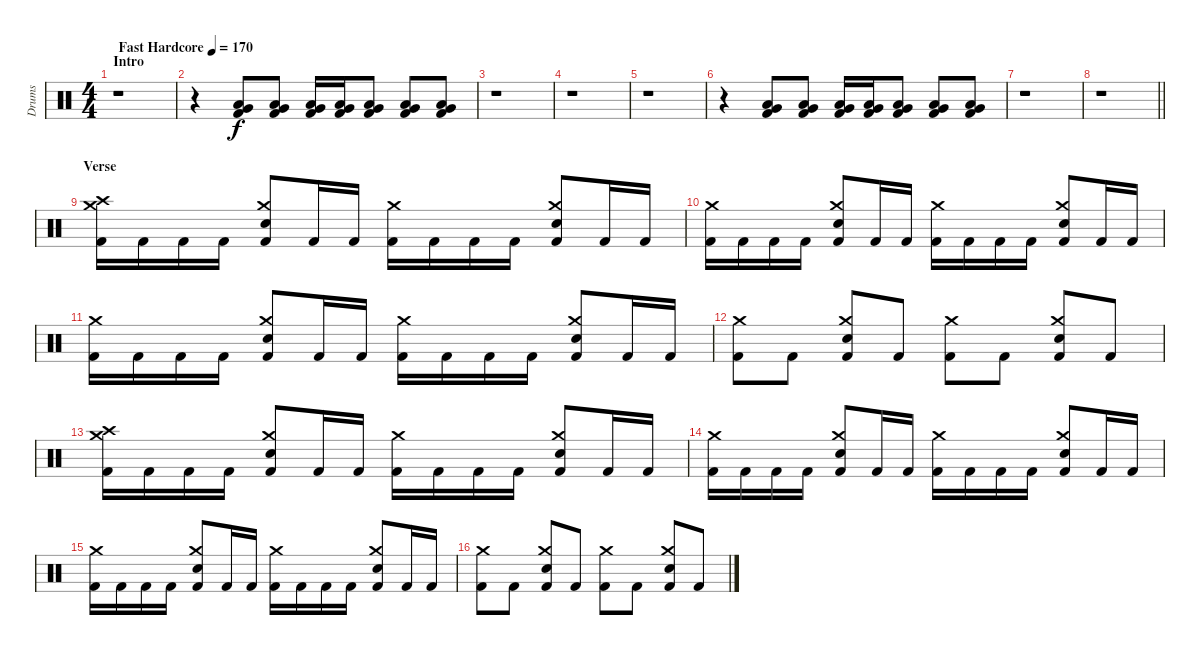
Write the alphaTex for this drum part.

\track ("Drums" "Drums") {instrument percussion}
\staff {score}
\articulation defaults
\ts (4 4)
\section ("" "Intro")
\tempo (170 "Fast Hardcore")
\clef neutral
\ks c
r.1{dy f} |
r.4 ("Very Low Tom (hit)" "Low Floor Tom (hit)" "Kick (hit) 2").8 ("Very Low Tom (hit)" "Low Floor Tom (hit)" "Kick (hit) 2").8 ("Very Low Tom (hit)" "Low Floor Tom (hit)" "Kick (hit) 2").16 ("Very Low Tom (hit)" "Low Floor Tom (hit)" "Kick (hit) 2").16 ("Very Low Tom (hit)" "Low Floor Tom (hit)" "Kick (hit) 2").8 ("Very Low Tom (hit)" "Low Floor Tom (hit)" "Kick (hit) 2").8 ("Very Low Tom (hit)" "Low Floor Tom (hit)" "Kick (hit) 2").8 |
r.1 |
r.1 |
r.1 |
r.4 ("Very Low Tom (hit)" "Low Floor Tom (hit)" "Kick (hit) 2").8 ("Very Low Tom (hit)" "Low Floor Tom (hit)" "Kick (hit) 2").8 ("Very Low Tom (hit)" "Low Floor Tom (hit)" "Kick (hit) 2").16 ("Very Low Tom (hit)" "Low Floor Tom (hit)" "Kick (hit) 2").16 ("Very Low Tom (hit)" "Low Floor Tom (hit)" "Kick (hit) 2").8 ("Very Low Tom (hit)" "Low Floor Tom (hit)" "Kick (hit) 2").8 ("Very Low Tom (hit)" "Low Floor Tom (hit)" "Kick (hit) 2").8 |
r.1 |
\barLineRight lightlight
r.1 |
\section ("" "Verse")
("Crash medium (hit)" "Crash high (hit)" "Kick (hit) 2").16 "Kick (hit) 2".16 "Kick (hit) 2".16 "Kick (hit) 2".16 ("Crash medium (hit)" "Electric Snare (hit)" "Kick (hit) 2").8 "Kick (hit) 2".16 "Kick (hit) 2".16 ("Crash medium (hit)" "Kick (hit) 2").16 "Kick (hit) 2".16 "Kick (hit) 2".16 "Kick (hit) 2".16 ("Crash medium (hit)" "Electric Snare (hit)" "Kick (hit) 2").8 "Kick (hit) 2".16 "Kick (hit) 2".16 |
("Crash medium (hit)" "Kick (hit) 2").16 "Kick (hit) 2".16 "Kick (hit) 2".16 "Kick (hit) 2".16 ("Crash medium (hit)" "Electric Snare (hit)" "Kick (hit) 2").8 "Kick (hit) 2".16 "Kick (hit) 2".16 ("Crash medium (hit)" "Kick (hit) 2").16 "Kick (hit) 2".16 "Kick (hit) 2".16 "Kick (hit) 2".16 ("Crash medium (hit)" "Electric Snare (hit)" "Kick (hit) 2").8 "Kick (hit) 2".16 "Kick (hit) 2".16 |
("Crash medium (hit)" "Kick (hit) 2").16 "Kick (hit) 2".16 "Kick (hit) 2".16 "Kick (hit) 2".16 ("Crash medium (hit)" "Electric Snare (hit)" "Kick (hit) 2").8 "Kick (hit) 2".16 "Kick (hit) 2".16 ("Crash medium (hit)" "Kick (hit) 2").16 "Kick (hit) 2".16 "Kick (hit) 2".16 "Kick (hit) 2".16 ("Crash medium (hit)" "Electric Snare (hit)" "Kick (hit) 2").8 "Kick (hit) 2".16 "Kick (hit) 2".16 |
("Crash medium (hit)" "Kick (hit) 2").8 "Kick (hit) 2".8 ("Crash medium (hit)" "Electric Snare (hit)" "Kick (hit) 2").8 "Kick (hit) 2".8 ("Crash medium (hit)" "Kick (hit) 2").8 "Kick (hit) 2".8 ("Crash medium (hit)" "Electric Snare (hit)" "Kick (hit) 2").8 "Kick (hit) 2".8 |
("Crash medium (hit)" "Crash high (hit)" "Kick (hit) 2").16 "Kick (hit) 2".16 "Kick (hit) 2".16 "Kick (hit) 2".16 ("Crash medium (hit)" "Electric Snare (hit)" "Kick (hit) 2").8 "Kick (hit) 2".16 "Kick (hit) 2".16 ("Crash medium (hit)" "Kick (hit) 2").16 "Kick (hit) 2".16 "Kick (hit) 2".16 "Kick (hit) 2".16 ("Crash medium (hit)" "Electric Snare (hit)" "Kick (hit) 2").8 "Kick (hit) 2".16 "Kick (hit) 2".16 |
("Crash medium (hit)" "Kick (hit) 2").16 "Kick (hit) 2".16 "Kick (hit) 2".16 "Kick (hit) 2".16 ("Crash medium (hit)" "Electric Snare (hit)" "Kick (hit) 2").8 "Kick (hit) 2".16 "Kick (hit) 2".16 ("Crash medium (hit)" "Kick (hit) 2").16 "Kick (hit) 2".16 "Kick (hit) 2".16 "Kick (hit) 2".16 ("Crash medium (hit)" "Electric Snare (hit)" "Kick (hit) 2").8 "Kick (hit) 2".16 "Kick (hit) 2".16 |
("Crash medium (hit)" "Kick (hit) 2").16 "Kick (hit) 2".16 "Kick (hit) 2".16 "Kick (hit) 2".16 ("Crash medium (hit)" "Electric Snare (hit)" "Kick (hit) 2").8 "Kick (hit) 2".16 "Kick (hit) 2".16 ("Crash medium (hit)" "Kick (hit) 2").16 "Kick (hit) 2".16 "Kick (hit) 2".16 "Kick (hit) 2".16 ("Crash medium (hit)" "Electric Snare (hit)" "Kick (hit) 2").8 "Kick (hit) 2".16 "Kick (hit) 2".16 |
("Crash medium (hit)" "Kick (hit) 2").8 "Kick (hit) 2".8 ("Crash medium (hit)" "Electric Snare (hit)" "Kick (hit) 2").8 "Kick (hit) 2".8 ("Crash medium (hit)" "Kick (hit) 2").8 "Kick (hit) 2".8 ("Crash medium (hit)" "Electric Snare (hit)" "Kick (hit) 2").8 "Kick (hit) 2".8
